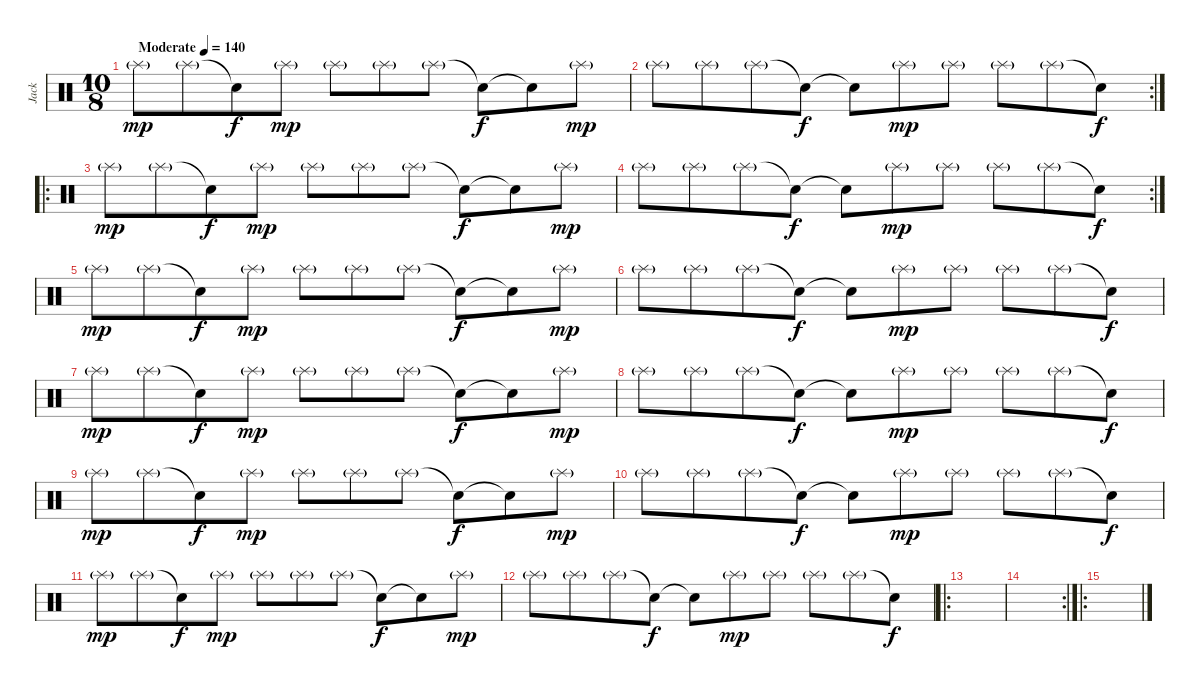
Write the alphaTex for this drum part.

\track ("Jack" "Jack") {instrument percussion}
\staff {score}
\articulation defaults
\ts (10 8)
\tempo (140 "Moderate")
\clef neutral
\ks c "Splash (hit)"{g}.8{dy mp volume 1} "Splash (hit)"{g}.8 "Snare (hit)"{t}.8{dy f} "Splash (hit)"{g}.8{dy mp} "Splash (hit)"{g}.8 "Splash (hit)"{g}.8 "Splash (hit)"{g}.8 "Snare (hit)"{t}.8{dy f} "Snare (hit)"{t}.8 "Splash (hit)"{g}.8{dy mp}
|
\rc 2 "Splash (hit)"{g}.8 "Splash (hit)"{g}.8 "Splash (hit)"{g}.8 "Snare (hit)"{t}.8{dy f} "Snare (hit)"{t}.8 "Splash (hit)"{g}.8{dy mp} "Splash (hit)"{g}.8 "Splash (hit)"{g}.8 "Splash (hit)"{g}.8 "Snare (hit)"{t}.8{dy f}
|
\ro "Splash (hit)"{g}.8{dy mp} "Splash (hit)"{g}.8 "Snare (hit)"{t}.8{dy f} "Splash (hit)"{g}.8{dy mp} "Splash (hit)"{g}.8 "Splash (hit)"{g}.8 "Splash (hit)"{g}.8 "Snare (hit)"{t}.8{dy f} "Snare (hit)"{t}.8 "Splash (hit)"{g}.8{dy mp}
|
\rc 2 "Splash (hit)"{g}.8 "Splash (hit)"{g}.8 "Splash (hit)"{g}.8 "Snare (hit)"{t}.8{dy f} "Snare (hit)"{t}.8 "Splash (hit)"{g}.8{dy mp} "Splash (hit)"{g}.8 "Splash (hit)"{g}.8 "Splash (hit)"{g}.8 "Snare (hit)"{t}.8{dy f}
|
"Splash (hit)"{g}.8{dy mp} "Splash (hit)"{g}.8 "Snare (hit)"{t}.8{dy f} "Splash (hit)"{g}.8{dy mp} "Splash (hit)"{g}.8 "Splash (hit)"{g}.8 "Splash (hit)"{g}.8 "Snare (hit)"{t}.8{dy f} "Snare (hit)"{t}.8 "Splash (hit)"{g}.8{dy mp} |
"Splash (hit)"{g}.8 "Splash (hit)"{g}.8 "Splash (hit)"{g}.8 "Snare (hit)"{t}.8{dy f} "Snare (hit)"{t}.8 "Splash (hit)"{g}.8{dy mp} "Splash (hit)"{g}.8 "Splash (hit)"{g}.8 "Splash (hit)"{g}.8 "Snare (hit)"{t}.8{dy f} |
"Splash (hit)"{g}.8{dy mp} "Splash (hit)"{g}.8 "Snare (hit)"{t}.8{dy f} "Splash (hit)"{g}.8{dy mp} "Splash (hit)"{g}.8 "Splash (hit)"{g}.8 "Splash (hit)"{g}.8 "Snare (hit)"{t}.8{dy f} "Snare (hit)"{t}.8 "Splash (hit)"{g}.8{dy mp} |
"Splash (hit)"{g}.8 "Splash (hit)"{g}.8 "Splash (hit)"{g}.8 "Snare (hit)"{t}.8{dy f} "Snare (hit)"{t}.8 "Splash (hit)"{g}.8{dy mp} "Splash (hit)"{g}.8 "Splash (hit)"{g}.8 "Splash (hit)"{g}.8 "Snare (hit)"{t}.8{dy f} |
"Splash (hit)"{g}.8{dy mp} "Splash (hit)"{g}.8 "Snare (hit)"{t}.8{dy f} "Splash (hit)"{g}.8{dy mp} "Splash (hit)"{g}.8 "Splash (hit)"{g}.8 "Splash (hit)"{g}.8 "Snare (hit)"{t}.8{dy f} "Snare (hit)"{t}.8 "Splash (hit)"{g}.8{dy mp} |
"Splash (hit)"{g}.8 "Splash (hit)"{g}.8 "Splash (hit)"{g}.8 "Snare (hit)"{t}.8{dy f} "Snare (hit)"{t}.8 "Splash (hit)"{g}.8{dy mp} "Splash (hit)"{g}.8 "Splash (hit)"{g}.8 "Splash (hit)"{g}.8 "Snare (hit)"{t}.8{dy f} |
"Splash (hit)"{g}.8{dy mp} "Splash (hit)"{g}.8 "Snare (hit)"{t}.8{dy f} "Splash (hit)"{g}.8{dy mp} "Splash (hit)"{g}.8 "Splash (hit)"{g}.8 "Splash (hit)"{g}.8 "Snare (hit)"{t}.8{dy f} "Snare (hit)"{t}.8 "Splash (hit)"{g}.8{dy mp} |
"Splash (hit)"{g}.8 "Splash (hit)"{g}.8 "Splash (hit)"{g}.8 "Snare (hit)"{t}.8{dy f} "Snare (hit)"{t}.8 "Splash (hit)"{g}.8{dy mp} "Splash (hit)"{g}.8 "Splash (hit)"{g}.8 "Splash (hit)"{g}.8 "Snare (hit)"{t}.8{dy f} |
\ro
|
\rc 2
|
\ro
